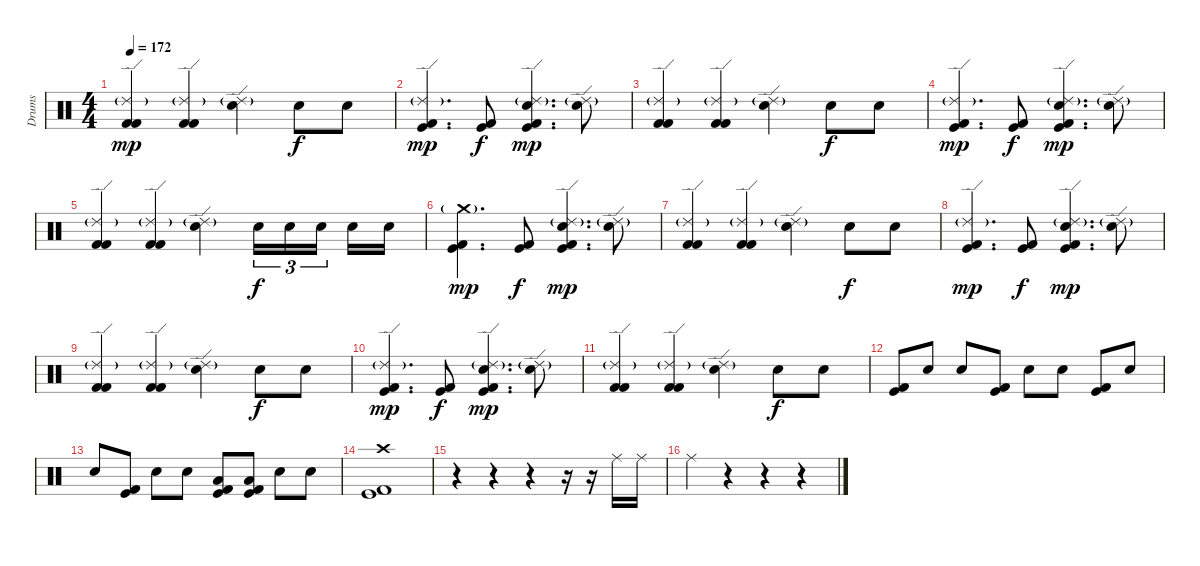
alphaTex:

\track ("Drums" "Drums") {instrument percussion}
\staff {score}
\articulation defaults
\ts (4 4)
\tempo 172
\clef neutral
\ks c
("Ride (edge) 2"{g} "Kick (hit) 2" "Kick (hit) 2").4{dy mp} ("Ride (edge) 2"{g} "Kick (hit) 2" "Kick (hit) 2").4 ("Ride (edge) 2"{g} "Electric Snare (hit)").4 "Electric Snare (hit)".8{dy f} "Electric Snare (hit)".8 |
("Ride (edge) 2"{g} "Kick (hit)" "Kick (hit) 2").4{d dy mp} ("Kick (hit)" "Kick (hit) 2").8{dy f} ("Ride (edge) 2"{g} "Electric Snare (hit)" "Kick (hit)" "Kick (hit) 2").4{d dy mp} ("Ride (edge) 2"{g} "Electric Snare (hit)").8 |
("Ride (edge) 2"{g} "Kick (hit) 2" "Kick (hit) 2").4 ("Ride (edge) 2"{g} "Kick (hit) 2" "Kick (hit) 2").4 ("Ride (edge) 2"{g} "Electric Snare (hit)").4 "Electric Snare (hit)".8{dy f} "Electric Snare (hit)".8 |
("Ride (edge) 2"{g} "Kick (hit)" "Kick (hit) 2").4{d dy mp} ("Kick (hit)" "Kick (hit) 2").8{dy f} ("Ride (edge) 2"{g} "Electric Snare (hit)" "Kick (hit)" "Kick (hit) 2").4{d dy mp} ("Ride (edge) 2"{g} "Electric Snare (hit)").8 |
("Ride (edge) 2"{g} "Kick (hit) 2" "Kick (hit) 2").4 ("Ride (edge) 2"{g} "Kick (hit) 2" "Kick (hit) 2").4 ("Ride (edge) 2"{g} "Electric Snare (hit)").4 "Electric Snare (hit)".16{tu (3 2) dy f} "Electric Snare (hit)".16{tu (3 2)} "Electric Snare (hit)".16{tu (3 2) beam splitsecondary} "Electric Snare (hit)".16 "Electric Snare (hit)".16 |
("Crash medium (hit)"{g} "Kick (hit)" "Kick (hit) 2").4{d dy mp} ("Kick (hit)" "Kick (hit) 2").8{dy f} ("Ride (edge) 2"{g} "Electric Snare (hit)" "Kick (hit)" "Kick (hit) 2").4{d dy mp} ("Ride (edge) 2"{g} "Electric Snare (hit)").8 |
("Ride (edge) 2"{g} "Kick (hit) 2" "Kick (hit) 2").4 ("Ride (edge) 2"{g} "Kick (hit) 2" "Kick (hit) 2").4 ("Ride (edge) 2"{g} "Electric Snare (hit)").4 "Electric Snare (hit)".8{dy f} "Electric Snare (hit)".8 |
("Ride (edge) 2"{g} "Kick (hit)" "Kick (hit) 2").4{d dy mp} ("Kick (hit)" "Kick (hit) 2").8{dy f} ("Ride (edge) 2"{g} "Electric Snare (hit)" "Kick (hit)" "Kick (hit) 2").4{d dy mp} ("Ride (edge) 2"{g} "Electric Snare (hit)").8 |
("Ride (edge) 2"{g} "Kick (hit) 2" "Kick (hit) 2").4 ("Ride (edge) 2"{g} "Kick (hit) 2" "Kick (hit) 2").4 ("Ride (edge) 2"{g} "Electric Snare (hit)").4 "Electric Snare (hit)".8{dy f} "Electric Snare (hit)".8 |
("Ride (edge) 2"{g} "Kick (hit)" "Kick (hit) 2").4{d dy mp} ("Kick (hit)" "Kick (hit) 2").8{dy f} ("Ride (edge) 2"{g} "Electric Snare (hit)" "Kick (hit)" "Kick (hit) 2").4{d dy mp} ("Ride (edge) 2"{g} "Electric Snare (hit)").8 |
("Ride (edge) 2"{g} "Kick (hit) 2" "Kick (hit) 2").4 ("Ride (edge) 2"{g} "Kick (hit) 2" "Kick (hit) 2").4 ("Ride (edge) 2"{g} "Electric Snare (hit)").4 "Electric Snare (hit)".8{dy f} "Electric Snare (hit)".8 |
("Kick (hit)" "Kick (hit) 2").8 "Electric Snare (hit)".8 "Electric Snare (hit)".8 ("Kick (hit)" "Kick (hit) 2").8 "Electric Snare (hit)".8 "Electric Snare (hit)".8 ("Kick (hit)" "Kick (hit) 2").8 "Electric Snare (hit)".8 |
"Electric Snare (hit)".8 ("Kick (hit)" "Kick (hit) 2").8 "Electric Snare (hit)".8 "Electric Snare (hit)".8 ("Low Tom (hit)" "Kick (hit)" "Kick (hit) 2").8 ("Low Tom (hit)" "Kick (hit)" "Kick (hit) 2").8 "Electric Snare (hit)".8 "Electric Snare (hit)".8 |
("Crash high (hit)" "Kick (hit)" "Kick (hit) 2").1 |
r.4 r.4 r.4 r.16 r.16 "Ride (middle)".16 "Ride (middle)".16 |
"Ride (middle)".4 r.4 r.4 r.4
